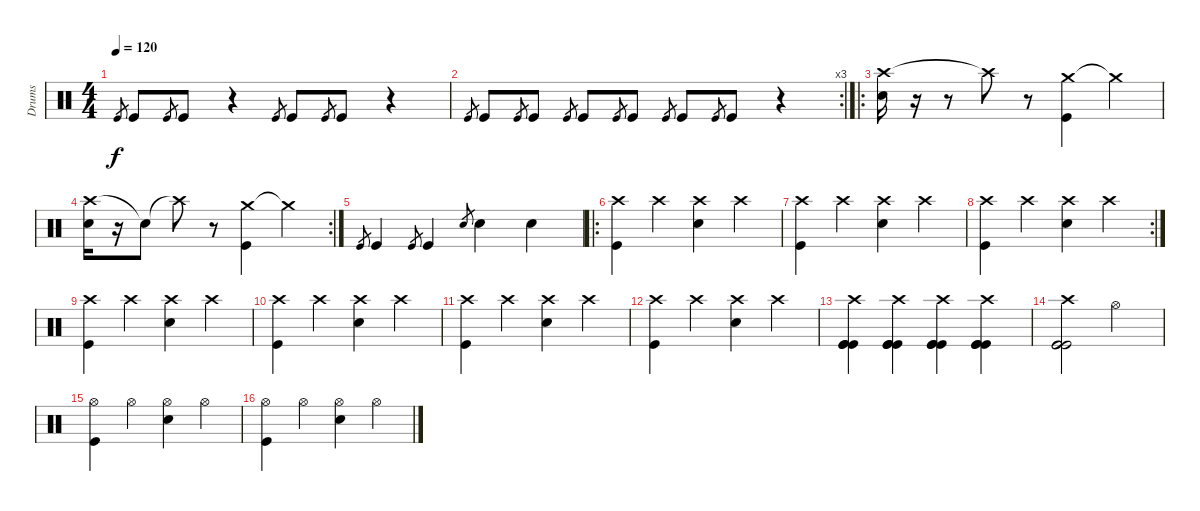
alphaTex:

\track ("Drums" "Drums") {instrument percussion}
\staff {score}
\articulation defaults
\ts (4 4)
\tempo 120
\clef neutral
\ks c "Kick (hit)".8{gr dy f} "Kick (hit)".8 "Kick (hit)".8{gr} "Kick (hit)".8
r.4 "Kick (hit)".8{gr} "Kick (hit)".8 "Kick (hit)".8{gr} "Kick (hit)".8 r.4 |
\rc 3 "Kick (hit)".8{gr} "Kick (hit)".8 "Kick (hit)".8{gr} "Kick (hit)".8 "Kick (hit)".8{gr} "Kick (hit)".8 "Kick (hit)".8{gr} "Kick (hit)".8 "Kick (hit)".8{gr} "Kick (hit)".8 "Kick (hit)".8{gr} "Kick (hit)".8
r.4 |
\ro
("Crash high (hit)" "Electric Snare (hit)").16 r.16 r.8 "Crash high (hit)"{t}.8 r.8 ("Crash medium (hit)" "Kick (hit)").4 "Crash medium (hit)"{t}.4 |
\rc 2
("Crash high (hit)" "Electric Snare (hit)").16 r.16 "Snare (hit)"{t}.8 "Crash high (hit)"{t}.8 r.8 ("Crash medium (hit)" "Kick (hit)").4 "Crash medium (hit)"{t}.4 |
"Kick (hit)".8{gr} "Kick (hit)".4 "Kick (hit)".8{gr} "Kick (hit)".4 "Electric Snare (hit)".8{gr} "Electric Snare (hit)".4 "Electric Snare (hit)".4 |
\ro
("Crash high (hit)" "Kick (hit)").4 "Crash high (hit)".4 ("Crash high (hit)" "Electric Snare (hit)").4 "Crash high (hit)".4 |
("Crash high (hit)" "Kick (hit)").4 "Crash high (hit)".4 ("Crash high (hit)" "Electric Snare (hit)").4 "Crash high (hit)".4 |
\rc 2
("Crash high (hit)" "Kick (hit)").4 "Crash high (hit)".4 ("Crash high (hit)" "Electric Snare (hit)").4 "Crash high (hit)".4 |
("Crash high (hit)" "Kick (hit)").4 "Crash high (hit)".4 ("Crash high (hit)" "Electric Snare (hit)").4 "Crash high (hit)".4 |
("Crash high (hit)" "Kick (hit)").4 "Crash high (hit)".4 ("Crash high (hit)" "Electric Snare (hit)").4 "Crash high (hit)".4 |
("Crash high (hit)" "Kick (hit)").4 "Crash high (hit)".4 ("Crash high (hit)" "Electric Snare (hit)").4 "Crash high (hit)".4 |
("Crash high (hit)" "Kick (hit)").4 "Crash high (hit)".4 ("Crash high (hit)" "Electric Snare (hit)").4 "Crash high (hit)".4 |
("Crash high (hit)" "Kick (hit)" "Kick (hit)" "Kick (hit)").4 ("Crash high (hit)" "Kick (hit)" "Kick (hit)" "Kick (hit)").4 ("Crash high (hit)" "Kick (hit)" "Kick (hit)" "Kick (hit)").4 ("Crash high (hit)" "Kick (hit)" "Kick (hit)" "Kick (hit)").4 |
("Crash high (hit)" "Kick (hit)" "Kick (hit)" "Kick (hit)").2 "Hi-Hat (open)".2 |
("Hi-Hat (open)" "Kick (hit)").4 "Hi-Hat (open)".4 ("Hi-Hat (open)" "Electric Snare (hit)").4 "Hi-Hat (open)".4 |
("Hi-Hat (open)" "Kick (hit)").4 "Hi-Hat (open)".4 ("Hi-Hat (open)" "Electric Snare (hit)").4 "Hi-Hat (open)".4
